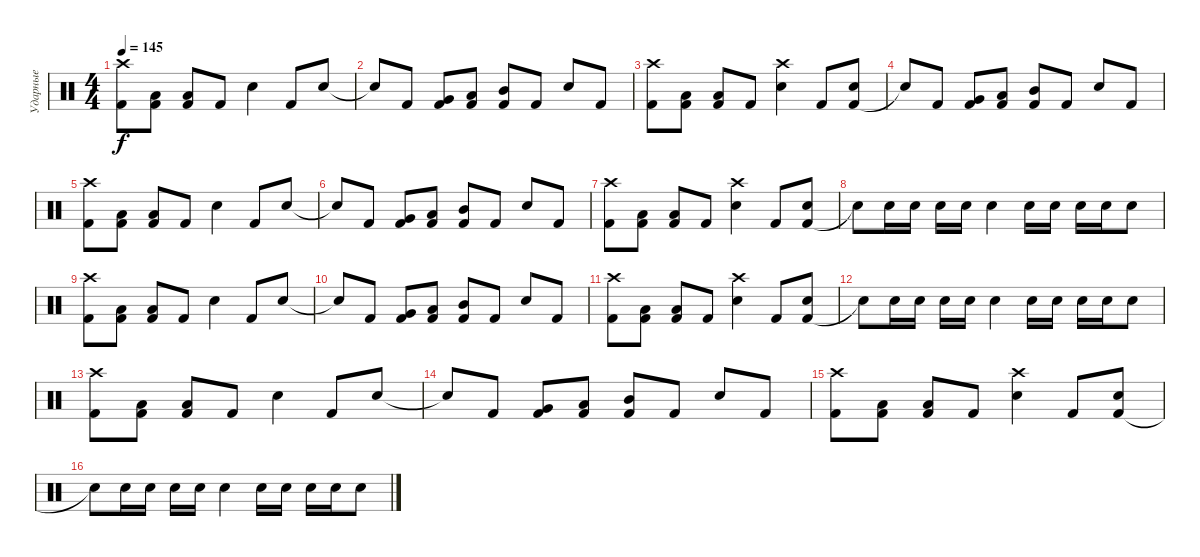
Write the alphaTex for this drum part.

\track ("Ударные" "Ударные") {instrument percussion}
\staff {score}
\articulation defaults
\ts (4 4)
\tempo 145
\clef neutral
\ks c
("Kick (hit) 2" "Crash high (hit)").8{dy f} ("Kick (hit) 2" "Low Tom (hit)").8 ("Kick (hit) 2" "Low Floor Tom (hit)").8 "Kick (hit) 2".8 "Electric Snare (hit)".4 "Kick (hit) 2".8 "Electric Snare (hit)".8 |
"Hand Clap (hit)"{t}.8 "Kick (hit) 2".8 ("Kick (hit) 2" "Very Low Tom (hit)").8 ("Kick (hit) 2" "Low Tom (hit)").8 ("Kick (hit) 2" "Mid Tom (hit)").8 "Kick (hit) 2".8 "Electric Snare (hit)".8 "Kick (hit) 2".8 |
("Kick (hit) 2" "Crash high (hit)").8 ("Kick (hit) 2" "Low Tom (hit)").8 ("Kick (hit) 2" "Low Floor Tom (hit)").8 "Kick (hit) 2".8 ("Electric Snare (hit)" "Crash high (hit)").4 "Kick (hit) 2".8 ("Kick (hit) 2" "Electric Snare (hit)").8 |
"Hand Clap (hit)"{t}.8 "Kick (hit) 2".8 ("Kick (hit) 2" "Very Low Tom (hit)").8 ("Kick (hit) 2" "Low Tom (hit)").8 ("Kick (hit) 2" "Mid Tom (hit)").8 "Kick (hit) 2".8 "Electric Snare (hit)".8 "Kick (hit) 2".8 |
("Kick (hit) 2" "Crash high (hit)").8 ("Kick (hit) 2" "Low Tom (hit)").8 ("Kick (hit) 2" "Low Floor Tom (hit)").8 "Kick (hit) 2".8 "Electric Snare (hit)".4 "Kick (hit) 2".8 "Electric Snare (hit)".8 |
"Hand Clap (hit)"{t}.8 "Kick (hit) 2".8 ("Kick (hit) 2" "Very Low Tom (hit)").8 ("Kick (hit) 2" "Low Tom (hit)").8 ("Kick (hit) 2" "Mid Tom (hit)").8 "Kick (hit) 2".8 "Electric Snare (hit)".8 "Kick (hit) 2".8 |
("Kick (hit) 2" "Crash high (hit)").8 ("Kick (hit) 2" "Low Tom (hit)").8 ("Kick (hit) 2" "Low Floor Tom (hit)").8 "Kick (hit) 2".8 ("Electric Snare (hit)" "Crash high (hit)").4 "Kick (hit) 2".8 ("Kick (hit) 2" "Electric Snare (hit)").8 |
"Electric Snare (hit)"{t}.8 "Electric Snare (hit)".16 "Electric Snare (hit)".16 "Electric Snare (hit)".16 "Electric Snare (hit)".16 "Electric Snare (hit)".4 "Electric Snare (hit)".16 "Electric Snare (hit)".16 "Electric Snare (hit)".16 "Electric Snare (hit)".16 "Electric Snare (hit)".8 |
("Kick (hit) 2" "Crash high (hit)").8 ("Kick (hit) 2" "Low Tom (hit)").8 ("Kick (hit) 2" "Low Floor Tom (hit)").8 "Kick (hit) 2".8 "Electric Snare (hit)".4 "Kick (hit) 2".8 "Electric Snare (hit)".8 |
"Hand Clap (hit)"{t}.8 "Kick (hit) 2".8 ("Kick (hit) 2" "Very Low Tom (hit)").8 ("Kick (hit) 2" "Low Tom (hit)").8 ("Kick (hit) 2" "Mid Tom (hit)").8 "Kick (hit) 2".8 "Electric Snare (hit)".8 "Kick (hit) 2".8 |
("Kick (hit) 2" "Crash high (hit)").8 ("Kick (hit) 2" "Low Tom (hit)").8 ("Kick (hit) 2" "Low Floor Tom (hit)").8 "Kick (hit) 2".8 ("Electric Snare (hit)" "Crash high (hit)").4 "Kick (hit) 2".8 ("Kick (hit) 2" "Electric Snare (hit)").8 |
"Electric Snare (hit)"{t}.8 "Electric Snare (hit)".16 "Electric Snare (hit)".16 "Electric Snare (hit)".16 "Electric Snare (hit)".16 "Electric Snare (hit)".4 "Electric Snare (hit)".16 "Electric Snare (hit)".16 "Electric Snare (hit)".16 "Electric Snare (hit)".16 "Electric Snare (hit)".8 |
("Kick (hit) 2" "Crash high (hit)").8 ("Kick (hit) 2" "Low Tom (hit)").8 ("Kick (hit) 2" "Low Floor Tom (hit)").8 "Kick (hit) 2".8 "Electric Snare (hit)".4 "Kick (hit) 2".8 "Electric Snare (hit)".8 |
"Hand Clap (hit)"{t}.8 "Kick (hit) 2".8 ("Kick (hit) 2" "Very Low Tom (hit)").8 ("Kick (hit) 2" "Low Tom (hit)").8 ("Kick (hit) 2" "Mid Tom (hit)").8 "Kick (hit) 2".8 "Electric Snare (hit)".8 "Kick (hit) 2".8 |
("Kick (hit) 2" "Crash high (hit)").8 ("Kick (hit) 2" "Low Tom (hit)").8 ("Kick (hit) 2" "Low Floor Tom (hit)").8 "Kick (hit) 2".8 ("Electric Snare (hit)" "Crash high (hit)").4 "Kick (hit) 2".8 ("Kick (hit) 2" "Electric Snare (hit)").8 |
"Electric Snare (hit)"{t}.8 "Electric Snare (hit)".16 "Electric Snare (hit)".16 "Electric Snare (hit)".16 "Electric Snare (hit)".16 "Electric Snare (hit)".4 "Electric Snare (hit)".16 "Electric Snare (hit)".16 "Electric Snare (hit)".16 "Electric Snare (hit)".16 "Electric Snare (hit)".8
